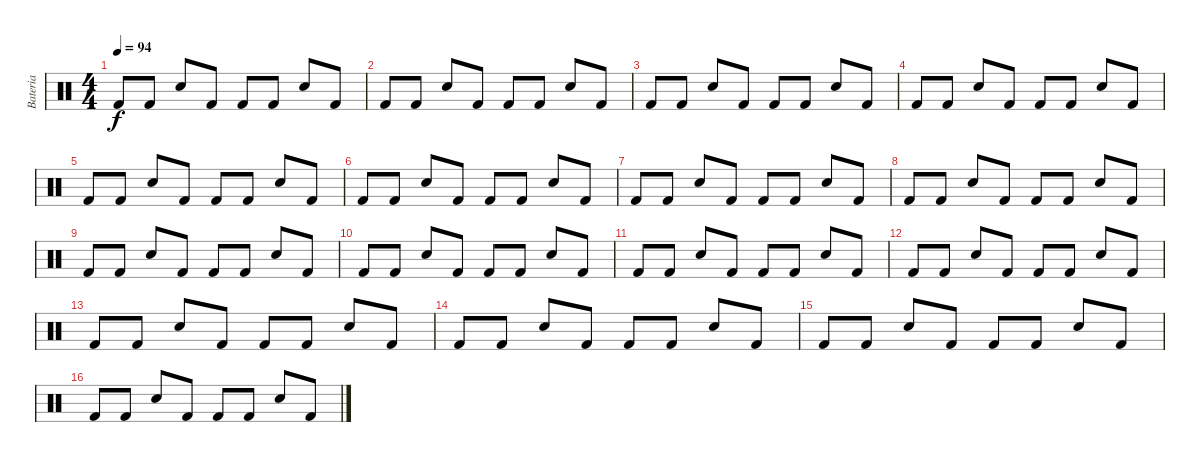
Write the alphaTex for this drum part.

\track ("Bateria" "Bateria") {instrument percussion}
\staff {score}
\articulation defaults
\ts (4 4)
\tempo 94
\clef neutral
\ks c "Kick (hit) 2".8{dy f} "Kick (hit) 2".8 "Snare (hit) 2".8 "Kick (hit) 2".8 "Kick (hit) 2".8 "Kick (hit) 2".8 "Snare (hit) 2".8 "Kick (hit) 2".8
|
"Kick (hit) 2".8 "Kick (hit) 2".8 "Snare (hit) 2".8 "Kick (hit) 2".8 "Kick (hit) 2".8 "Kick (hit) 2".8 "Snare (hit) 2".8 "Kick (hit) 2".8 |
"Kick (hit) 2".8 "Kick (hit) 2".8 "Snare (hit) 2".8 "Kick (hit) 2".8 "Kick (hit) 2".8 "Kick (hit) 2".8 "Snare (hit) 2".8 "Kick (hit) 2".8 |
"Kick (hit) 2".8 "Kick (hit) 2".8 "Snare (hit) 2".8 "Kick (hit) 2".8 "Kick (hit) 2".8 "Kick (hit) 2".8 "Snare (hit) 2".8 "Kick (hit) 2".8 |
"Kick (hit) 2".8 "Kick (hit) 2".8 "Snare (hit) 2".8 "Kick (hit) 2".8 "Kick (hit) 2".8 "Kick (hit) 2".8 "Snare (hit) 2".8 "Kick (hit) 2".8 |
"Kick (hit) 2".8 "Kick (hit) 2".8 "Snare (hit) 2".8 "Kick (hit) 2".8 "Kick (hit) 2".8 "Kick (hit) 2".8 "Snare (hit) 2".8 "Kick (hit) 2".8 |
"Kick (hit) 2".8 "Kick (hit) 2".8 "Snare (hit) 2".8 "Kick (hit) 2".8 "Kick (hit) 2".8 "Kick (hit) 2".8 "Snare (hit) 2".8 "Kick (hit) 2".8 |
"Kick (hit) 2".8 "Kick (hit) 2".8 "Snare (hit) 2".8 "Kick (hit) 2".8 "Kick (hit) 2".8 "Kick (hit) 2".8 "Snare (hit) 2".8 "Kick (hit) 2".8 |
"Kick (hit) 2".8 "Kick (hit) 2".8 "Snare (hit) 2".8 "Kick (hit) 2".8 "Kick (hit) 2".8 "Kick (hit) 2".8 "Snare (hit) 2".8 "Kick (hit) 2".8 |
"Kick (hit) 2".8 "Kick (hit) 2".8 "Snare (hit) 2".8 "Kick (hit) 2".8 "Kick (hit) 2".8 "Kick (hit) 2".8 "Snare (hit) 2".8 "Kick (hit) 2".8 |
"Kick (hit) 2".8 "Kick (hit) 2".8 "Snare (hit) 2".8 "Kick (hit) 2".8 "Kick (hit) 2".8 "Kick (hit) 2".8 "Snare (hit) 2".8 "Kick (hit) 2".8 |
"Kick (hit) 2".8 "Kick (hit) 2".8 "Snare (hit) 2".8 "Kick (hit) 2".8 "Kick (hit) 2".8 "Kick (hit) 2".8 "Snare (hit) 2".8 "Kick (hit) 2".8 |
"Kick (hit) 2".8 "Kick (hit) 2".8 "Snare (hit) 2".8 "Kick (hit) 2".8 "Kick (hit) 2".8 "Kick (hit) 2".8 "Snare (hit) 2".8 "Kick (hit) 2".8 |
"Kick (hit) 2".8 "Kick (hit) 2".8 "Snare (hit) 2".8 "Kick (hit) 2".8 "Kick (hit) 2".8 "Kick (hit) 2".8 "Snare (hit) 2".8 "Kick (hit) 2".8 |
"Kick (hit) 2".8 "Kick (hit) 2".8 "Snare (hit) 2".8 "Kick (hit) 2".8 "Kick (hit) 2".8 "Kick (hit) 2".8 "Snare (hit) 2".8 "Kick (hit) 2".8 |
"Kick (hit) 2".8 "Kick (hit) 2".8 "Snare (hit) 2".8 "Kick (hit) 2".8 "Kick (hit) 2".8 "Kick (hit) 2".8 "Snare (hit) 2".8 "Kick (hit) 2".8
